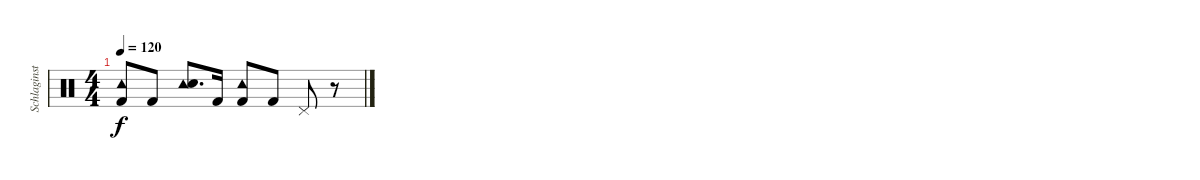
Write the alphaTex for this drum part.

\track ("Schlaginstrumente - Auswahl" "Schlaginst") {instrument percussion}
\staff {score}
\articulation defaults
\ts (4 4)
\tempo 120
\clef neutral
\ks c
("Tambourine (hit)" "Kick (hit) 2").8{dy f} "Kick (hit) 2".8 ("Tambourine (hit)" "Snare (hit) 2").8{d} "Kick (hit) 2".16 ("Tambourine (hit)" "Kick (hit) 2").8 "Kick (hit) 2".8 "Pedal Hi-Hat (hit)".8 r.8
